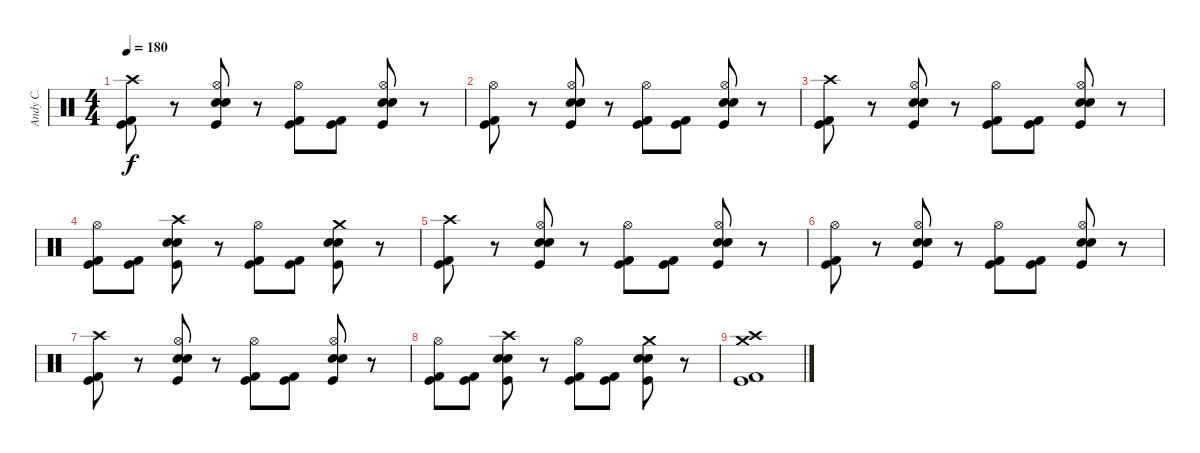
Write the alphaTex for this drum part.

\track ("Andy C." "Andy C.") {instrument percussion}
\staff {score}
\articulation defaults
\ts (4 4)
\tempo 180
\clef neutral
\ks c
("Crash high (hit)" "Kick (hit)" "Kick (hit) 2").8{dy f} r.8 ("Hi-Hat (open)" "Kick (hit)" "Snare (hit) 2" "Electric Snare (hit)").8 r.8 ("Hi-Hat (open)" "Kick (hit)" "Kick (hit) 2").8 ("Kick (hit)" "Kick (hit) 2").8 ("Hi-Hat (open)" "Kick (hit)" "Snare (hit) 2" "Electric Snare (hit)").8 r.8 |
("Hi-Hat (open)" "Kick (hit)" "Kick (hit) 2").8 r.8 ("Hi-Hat (open)" "Kick (hit)" "Snare (hit) 2" "Electric Snare (hit)").8 r.8 ("Hi-Hat (open)" "Kick (hit)" "Kick (hit) 2").8 ("Kick (hit)" "Kick (hit) 2").8 ("Hi-Hat (open)" "Kick (hit)" "Snare (hit) 2" "Electric Snare (hit)").8 r.8 |
("Crash high (hit)" "Kick (hit)" "Kick (hit) 2").8 r.8 ("Hi-Hat (open)" "Kick (hit)" "Snare (hit) 2" "Electric Snare (hit)").8 r.8 ("Hi-Hat (open)" "Kick (hit)" "Kick (hit) 2").8 ("Kick (hit)" "Kick (hit) 2").8 ("Hi-Hat (open)" "Kick (hit)" "Snare (hit) 2" "Electric Snare (hit)").8 r.8 |
("Hi-Hat (open)" "Kick (hit)" "Kick (hit) 2").8 ("Kick (hit)" "Kick (hit) 2").8 ("Crash high (hit)" "Kick (hit)" "Snare (hit) 2" "Electric Snare (hit)").8 r.8 ("Hi-Hat (open)" "Kick (hit)" "Kick (hit) 2").8 ("Kick (hit)" "Kick (hit) 2").8 ("Crash medium (hit)" "Snare (hit) 2" "Kick (hit)" "Electric Snare (hit)").8 r.8 |
("Crash high (hit)" "Kick (hit)" "Kick (hit) 2").8 r.8 ("Hi-Hat (open)" "Kick (hit)" "Snare (hit) 2" "Electric Snare (hit)").8 r.8 ("Hi-Hat (open)" "Kick (hit)" "Kick (hit) 2").8 ("Kick (hit)" "Kick (hit) 2").8 ("Hi-Hat (open)" "Kick (hit)" "Snare (hit) 2" "Electric Snare (hit)").8 r.8 |
("Hi-Hat (open)" "Kick (hit)" "Kick (hit) 2").8 r.8 ("Hi-Hat (open)" "Kick (hit)" "Snare (hit) 2" "Electric Snare (hit)").8 r.8 ("Hi-Hat (open)" "Kick (hit)" "Kick (hit) 2").8 ("Kick (hit)" "Kick (hit) 2").8 ("Hi-Hat (open)" "Kick (hit)" "Snare (hit) 2" "Electric Snare (hit)").8 r.8 |
("Crash high (hit)" "Kick (hit)" "Kick (hit) 2").8 r.8 ("Hi-Hat (open)" "Kick (hit)" "Snare (hit) 2" "Electric Snare (hit)").8 r.8 ("Hi-Hat (open)" "Kick (hit)" "Kick (hit) 2").8 ("Kick (hit)" "Kick (hit) 2").8 ("Hi-Hat (open)" "Kick (hit)" "Snare (hit) 2" "Electric Snare (hit)").8 r.8 |
("Hi-Hat (open)" "Kick (hit)" "Kick (hit) 2").8 ("Kick (hit)" "Kick (hit) 2").8 ("Crash high (hit)" "Kick (hit)" "Snare (hit) 2" "Electric Snare (hit)").8 r.8 ("Hi-Hat (open)" "Kick (hit)" "Kick (hit) 2").8 ("Kick (hit)" "Kick (hit) 2").8 ("Crash medium (hit)" "Kick (hit)" "Snare (hit) 2" "Electric Snare (hit)").8 r.8 |
("Crash medium (hit)" "Crash high (hit)" "Kick (hit)" "Kick (hit) 2").1
